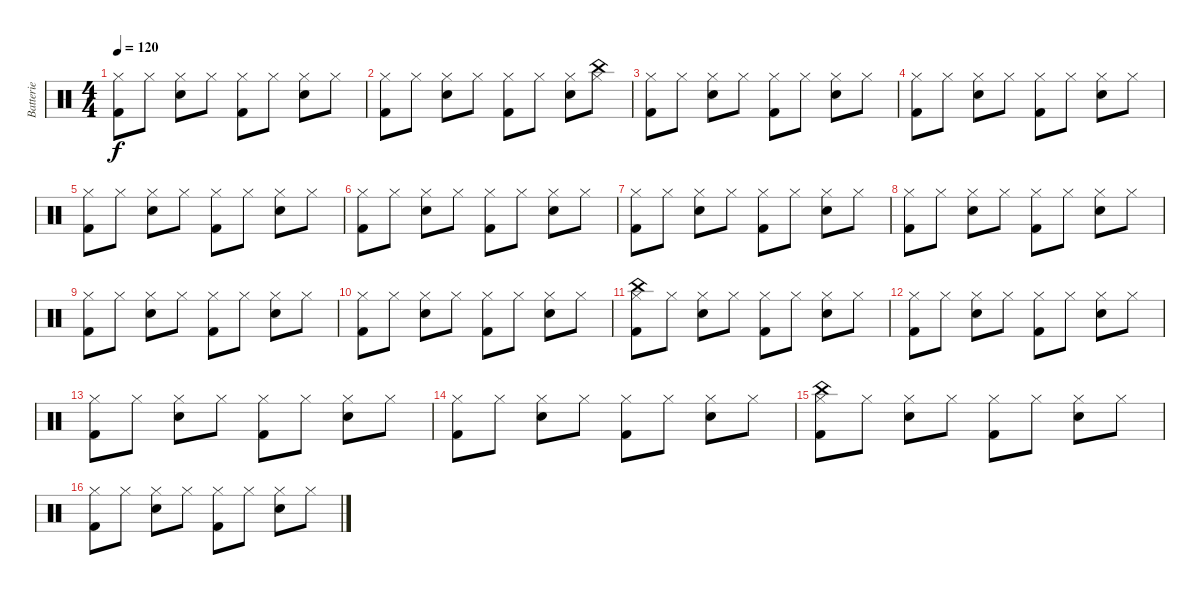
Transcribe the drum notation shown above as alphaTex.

\track ("Batterie" "Batterie") {instrument percussion}
\staff {score}
\articulation defaults
\ts (4 4)
\tempo 120
\clef neutral
\ks c
("Hi-Hat (closed)" "Kick (hit) 2").8{dy f} "Hi-Hat (closed)".8 ("Hi-Hat (closed)" "Electric Snare (hit)").8 "Hi-Hat (closed)".8 ("Hi-Hat (closed)" "Kick (hit) 2").8 "Hi-Hat (closed)".8 ("Hi-Hat (closed)" "Electric Snare (hit)").8 "Hi-Hat (closed)".8 |
("Hi-Hat (closed)" "Kick (hit) 2").8 "Hi-Hat (closed)".8 ("Hi-Hat (closed)" "Electric Snare (hit)").8 "Hi-Hat (closed)".8 ("Hi-Hat (closed)" "Kick (hit) 2").8 "Hi-Hat (closed)".8 ("Hi-Hat (closed)" "Electric Snare (hit)").8 ("Hi-Hat (closed)" "China (hit)").8 |
("Hi-Hat (closed)" "Kick (hit) 2").8 "Hi-Hat (closed)".8 ("Hi-Hat (closed)" "Electric Snare (hit)").8 "Hi-Hat (closed)".8 ("Hi-Hat (closed)" "Kick (hit) 2").8 "Hi-Hat (closed)".8 ("Hi-Hat (closed)" "Electric Snare (hit)").8 "Hi-Hat (closed)".8 |
("Hi-Hat (closed)" "Kick (hit) 2").8 "Hi-Hat (closed)".8 ("Hi-Hat (closed)" "Electric Snare (hit)").8 "Hi-Hat (closed)".8 ("Hi-Hat (closed)" "Kick (hit) 2").8 "Hi-Hat (closed)".8 ("Hi-Hat (closed)" "Electric Snare (hit)").8 "Hi-Hat (closed)".8 |
("Hi-Hat (closed)" "Kick (hit) 2").8 "Hi-Hat (closed)".8 ("Hi-Hat (closed)" "Electric Snare (hit)").8 "Hi-Hat (closed)".8 ("Hi-Hat (closed)" "Kick (hit) 2").8 "Hi-Hat (closed)".8 ("Hi-Hat (closed)" "Electric Snare (hit)").8 "Hi-Hat (closed)".8 |
("Hi-Hat (closed)" "Kick (hit) 2").8 "Hi-Hat (closed)".8 ("Hi-Hat (closed)" "Electric Snare (hit)").8 "Hi-Hat (closed)".8 ("Hi-Hat (closed)" "Kick (hit) 2").8 "Hi-Hat (closed)".8 ("Hi-Hat (closed)" "Electric Snare (hit)").8 "Hi-Hat (closed)".8 |
("Hi-Hat (closed)" "Kick (hit) 2").8 "Hi-Hat (closed)".8 ("Hi-Hat (closed)" "Electric Snare (hit)").8 "Hi-Hat (closed)".8 ("Hi-Hat (closed)" "Kick (hit) 2").8 "Hi-Hat (closed)".8 ("Hi-Hat (closed)" "Electric Snare (hit)").8 "Hi-Hat (closed)".8 |
("Hi-Hat (closed)" "Kick (hit) 2").8 "Hi-Hat (closed)".8 ("Hi-Hat (closed)" "Electric Snare (hit)").8 "Hi-Hat (closed)".8 ("Hi-Hat (closed)" "Kick (hit) 2").8 "Hi-Hat (closed)".8 ("Hi-Hat (closed)" "Electric Snare (hit)").8 "Hi-Hat (closed)".8 |
("Hi-Hat (closed)" "Kick (hit) 2").8 "Hi-Hat (closed)".8 ("Hi-Hat (closed)" "Electric Snare (hit)").8 "Hi-Hat (closed)".8 ("Hi-Hat (closed)" "Kick (hit) 2").8 "Hi-Hat (closed)".8 ("Hi-Hat (closed)" "Electric Snare (hit)").8 "Hi-Hat (closed)".8 |
("Hi-Hat (closed)" "Kick (hit) 2").8 "Hi-Hat (closed)".8 ("Hi-Hat (closed)" "Electric Snare (hit)").8 "Hi-Hat (closed)".8 ("Hi-Hat (closed)" "Kick (hit) 2").8 "Hi-Hat (closed)".8 ("Hi-Hat (closed)" "Electric Snare (hit)").8 "Hi-Hat (closed)".8 |
("Hi-Hat (closed)" "Kick (hit) 2" "China (hit)").8 "Hi-Hat (closed)".8 ("Hi-Hat (closed)" "Electric Snare (hit)").8 "Hi-Hat (closed)".8 ("Hi-Hat (closed)" "Kick (hit) 2").8 "Hi-Hat (closed)".8 ("Hi-Hat (closed)" "Electric Snare (hit)").8 "Hi-Hat (closed)".8 |
("Hi-Hat (closed)" "Kick (hit) 2").8 "Hi-Hat (closed)".8 ("Hi-Hat (closed)" "Electric Snare (hit)").8 "Hi-Hat (closed)".8 ("Hi-Hat (closed)" "Kick (hit) 2").8 "Hi-Hat (closed)".8 ("Hi-Hat (closed)" "Electric Snare (hit)").8 "Hi-Hat (closed)".8 |
("Hi-Hat (closed)" "Kick (hit) 2").8 "Hi-Hat (closed)".8 ("Hi-Hat (closed)" "Electric Snare (hit)").8 "Hi-Hat (closed)".8 ("Hi-Hat (closed)" "Kick (hit) 2").8 "Hi-Hat (closed)".8 ("Hi-Hat (closed)" "Electric Snare (hit)").8 "Hi-Hat (closed)".8 |
("Hi-Hat (closed)" "Kick (hit) 2").8 "Hi-Hat (closed)".8 ("Hi-Hat (closed)" "Electric Snare (hit)").8 "Hi-Hat (closed)".8 ("Hi-Hat (closed)" "Kick (hit) 2").8 "Hi-Hat (closed)".8 ("Hi-Hat (closed)" "Electric Snare (hit)").8 "Hi-Hat (closed)".8 |
("Hi-Hat (closed)" "Kick (hit) 2" "China (hit)").8 "Hi-Hat (closed)".8 ("Hi-Hat (closed)" "Electric Snare (hit)").8 "Hi-Hat (closed)".8 ("Hi-Hat (closed)" "Kick (hit) 2").8 "Hi-Hat (closed)".8 ("Hi-Hat (closed)" "Electric Snare (hit)").8 "Hi-Hat (closed)".8 |
("Hi-Hat (closed)" "Kick (hit) 2").8 "Hi-Hat (closed)".8 ("Hi-Hat (closed)" "Electric Snare (hit)").8 "Hi-Hat (closed)".8 ("Hi-Hat (closed)" "Kick (hit) 2").8 "Hi-Hat (closed)".8 ("Hi-Hat (closed)" "Electric Snare (hit)").8 "Hi-Hat (closed)".8
